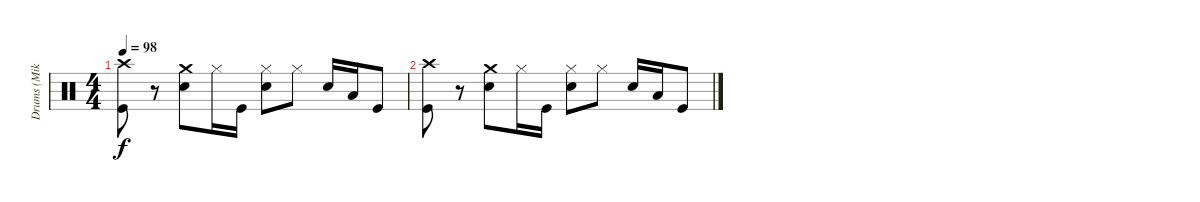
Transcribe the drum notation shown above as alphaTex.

\track ("Drums (Mike Kellie)" "Drums (Mik") {instrument percussion}
\staff {score}
\articulation defaults
\ts (4 4)
\tempo 98
\clef neutral
\ks c
("Crash high (hit)" "Kick (hit)").8{dy f} r.8 ("Crash medium (hit)" "Electric Snare (hit)").8 "Hi-Hat (closed)".16 "Kick (hit)".16 ("Hi-Hat (closed)" "Electric Snare (hit)").8 "Hi-Hat (closed)".8 "Electric Snare (hit)".16 "Low Tom (hit)".16 "Kick (hit)".8 |
("Crash high (hit)" "Kick (hit)").8 r.8 ("Crash medium (hit)" "Electric Snare (hit)").8 "Hi-Hat (closed)".16 "Kick (hit)".16 ("Hi-Hat (closed)" "Electric Snare (hit)").8 "Hi-Hat (closed)".8 "Electric Snare (hit)".16 "Low Tom (hit)".16 "Kick (hit)".8
